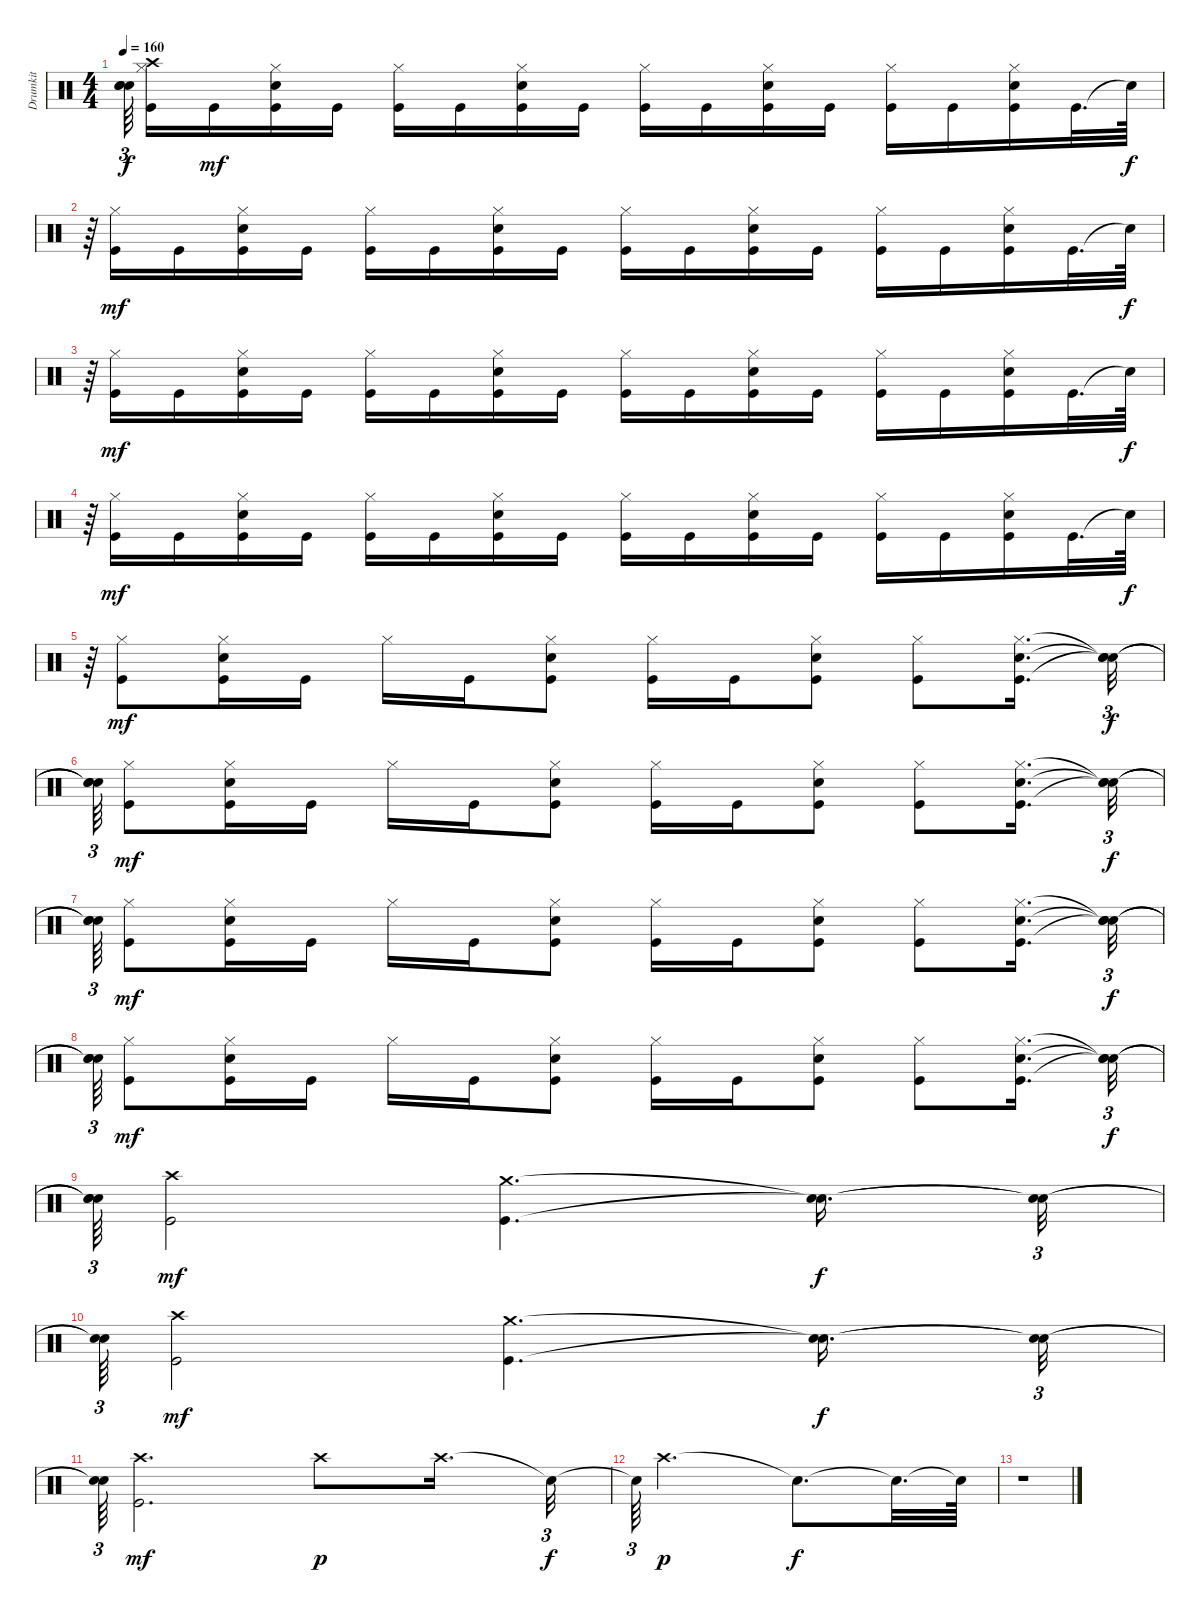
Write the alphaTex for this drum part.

\track ("Drumkit" "Drumkit") {instrument percussion}
\staff {score}
\articulation defaults
\ts (4 4)
\tempo 160
\clef neutral
\ks c
("Snare (hit)"{t} "Snare (hit)"{t} "Snare (hit)"{t}).64{tu (3 2) dy f beam splitsecondary} ("Crash high (hit)" "Kick (hit)" "Hi-Hat (closed)").16 "Kick (hit)".16{dy mf} ("Kick (hit)" "Snare (hit) 2" "Hi-Hat (closed)").16 "Kick (hit)".16 ("Kick (hit)" "Hi-Hat (closed)").16 "Kick (hit)".16 ("Kick (hit)" "Snare (hit) 2" "Hi-Hat (closed)").16 "Kick (hit)".16 ("Kick (hit)" "Hi-Hat (closed)").16 "Kick (hit)".16 ("Kick (hit)" "Snare (hit) 2" "Hi-Hat (closed)").16 "Kick (hit)".16 ("Kick (hit)" "Hi-Hat (closed)").16 "Kick (hit)".16 ("Kick (hit)" "Snare (hit) 2" "Hi-Hat (closed)").16 "Kick (hit)".32{d} "Snare (hit)"{t}.64{dy f} |
r.64{tu (3 2)} ("Kick (hit)" "Hi-Hat (closed)").16{dy mf} "Kick (hit)".16 ("Kick (hit)" "Snare (hit) 2" "Hi-Hat (closed)").16 "Kick (hit)".16 ("Kick (hit)" "Hi-Hat (closed)").16 "Kick (hit)".16 ("Kick (hit)" "Snare (hit) 2" "Hi-Hat (closed)").16 "Kick (hit)".16 ("Kick (hit)" "Hi-Hat (closed)").16 "Kick (hit)".16 ("Kick (hit)" "Snare (hit) 2" "Hi-Hat (closed)").16 "Kick (hit)".16 ("Kick (hit)" "Hi-Hat (closed)").16 "Kick (hit)".16 ("Kick (hit)" "Snare (hit) 2" "Hi-Hat (closed)").16 "Kick (hit)".32{d} "Snare (hit)"{t}.64{dy f} |
r.64{tu (3 2)} ("Kick (hit)" "Hi-Hat (closed)").16{dy mf} "Kick (hit)".16 ("Kick (hit)" "Snare (hit) 2" "Hi-Hat (closed)").16 "Kick (hit)".16 ("Kick (hit)" "Hi-Hat (closed)").16 "Kick (hit)".16 ("Kick (hit)" "Snare (hit) 2" "Hi-Hat (closed)").16 "Kick (hit)".16 ("Kick (hit)" "Hi-Hat (closed)").16 "Kick (hit)".16 ("Kick (hit)" "Snare (hit) 2" "Hi-Hat (closed)").16 "Kick (hit)".16 ("Kick (hit)" "Hi-Hat (closed)").16 "Kick (hit)".16 ("Kick (hit)" "Snare (hit) 2" "Hi-Hat (closed)").16 "Kick (hit)".32{d} "Snare (hit)"{t}.64{dy f} |
r.64{tu (3 2)} ("Kick (hit)" "Hi-Hat (closed)").16{dy mf} "Kick (hit)".16 ("Kick (hit)" "Snare (hit) 2" "Hi-Hat (closed)").16 "Kick (hit)".16 ("Kick (hit)" "Hi-Hat (closed)").16 "Kick (hit)".16 ("Kick (hit)" "Snare (hit) 2" "Hi-Hat (closed)").16 "Kick (hit)".16 ("Kick (hit)" "Hi-Hat (closed)").16 "Kick (hit)".16 ("Kick (hit)" "Snare (hit) 2" "Hi-Hat (closed)").16 "Kick (hit)".16 ("Kick (hit)" "Hi-Hat (closed)").16 "Kick (hit)".16 ("Kick (hit)" "Snare (hit) 2" "Hi-Hat (closed)").16 "Kick (hit)".32{d} "Snare (hit)"{t}.64{dy f} |
r.64{tu (3 2)} ("Kick (hit)" "Hi-Hat (closed)").8{dy mf} ("Kick (hit)" "Snare (hit) 2" "Hi-Hat (closed)").16 "Kick (hit)".16 "Hi-Hat (closed)".16 "Kick (hit)".16 ("Kick (hit)" "Snare (hit) 2" "Hi-Hat (closed)").8 ("Kick (hit)" "Hi-Hat (closed)").16 "Kick (hit)".16 ("Kick (hit)" "Snare (hit) 2" "Hi-Hat (closed)").8 ("Kick (hit)" "Hi-Hat (closed)").8 ("Kick (hit)" "Snare (hit) 2" "Hi-Hat (closed)").16{d} ("Snare (hit)"{t} "Snare (hit)"{t} "Snare (hit)"{t}).32{tu (3 2) dy f} |
("Snare (hit)"{t} "Snare (hit)"{t} "Snare (hit)"{t}).64{tu (3 2)} ("Kick (hit)" "Hi-Hat (closed)").8{dy mf} ("Kick (hit)" "Snare (hit) 2" "Hi-Hat (closed)").16 "Kick (hit)".16 "Hi-Hat (closed)".16 "Kick (hit)".16 ("Kick (hit)" "Snare (hit) 2" "Hi-Hat (closed)").8 ("Kick (hit)" "Hi-Hat (closed)").16 "Kick (hit)".16 ("Kick (hit)" "Snare (hit) 2" "Hi-Hat (closed)").8 ("Kick (hit)" "Hi-Hat (closed)").8 ("Kick (hit)" "Snare (hit) 2" "Hi-Hat (closed)").16{d} ("Snare (hit)"{t} "Snare (hit)"{t} "Snare (hit)"{t}).32{tu (3 2) dy f} |
("Snare (hit)"{t} "Snare (hit)"{t} "Snare (hit)"{t}).64{tu (3 2)} ("Kick (hit)" "Hi-Hat (closed)").8{dy mf} ("Kick (hit)" "Snare (hit) 2" "Hi-Hat (closed)").16 "Kick (hit)".16 "Hi-Hat (closed)".16 "Kick (hit)".16 ("Kick (hit)" "Snare (hit) 2" "Hi-Hat (closed)").8 ("Kick (hit)" "Hi-Hat (closed)").16 "Kick (hit)".16 ("Kick (hit)" "Snare (hit) 2" "Hi-Hat (closed)").8 ("Kick (hit)" "Hi-Hat (closed)").8 ("Kick (hit)" "Snare (hit) 2" "Hi-Hat (closed)").16{d} ("Snare (hit)"{t} "Snare (hit)"{t} "Snare (hit)"{t}).32{tu (3 2) dy f} |
("Snare (hit)"{t} "Snare (hit)"{t} "Snare (hit)"{t}).64{tu (3 2)} ("Kick (hit)" "Hi-Hat (closed)").8{dy mf} ("Kick (hit)" "Snare (hit) 2" "Hi-Hat (closed)").16 "Kick (hit)".16 "Hi-Hat (closed)".16 "Kick (hit)".16 ("Kick (hit)" "Snare (hit) 2" "Hi-Hat (closed)").8 ("Kick (hit)" "Hi-Hat (closed)").16 "Kick (hit)".16 ("Kick (hit)" "Snare (hit) 2" "Hi-Hat (closed)").8 ("Kick (hit)" "Hi-Hat (closed)").8 ("Kick (hit)" "Snare (hit) 2" "Hi-Hat (closed)").16{d} ("Snare (hit)"{t} "Snare (hit)"{t} "Snare (hit)"{t}).32{tu (3 2) dy f} |
("Snare (hit)"{t} "Snare (hit)"{t} "Snare (hit)"{t}).64{tu (3 2)} ("Kick (hit)" "Crash high (hit)").2{dy mf} ("Kick (hit)" "Crash medium (hit)").4{d} ("Snare (hit)"{t} "Snare (hit)"{t}).16{d dy f} ("Snare (hit)"{t} "Snare (hit)"{t}).32{tu (3 2)} |
("Snare (hit)"{t} "Snare (hit)"{t}).64{tu (3 2)} ("Kick (hit)" "Crash high (hit)").2{dy mf} ("Kick (hit)" "Crash medium (hit)").4{d} ("Snare (hit)"{t} "Snare (hit)"{t}).16{d dy f} ("Snare (hit)"{t} "Snare (hit)"{t}).32{tu (3 2)} |
("Snare (hit)"{t} "Snare (hit)"{t}).64{tu (3 2)} ("Kick (hit)" "Crash high (hit)").2{d dy mf} "Crash high (hit)".8{dy p} "Crash high (hit)".16{d} "Snare (hit)"{t}.32{tu (3 2) dy f} |
"Snare (hit)"{t}.64{tu (3 2)} "Crash high (hit)".2{d dy p} "Snare (hit)"{t}.8{d dy f} "Snare (hit)"{t}.32{d} "Snare (hit)"{t}.64 |
r.1
